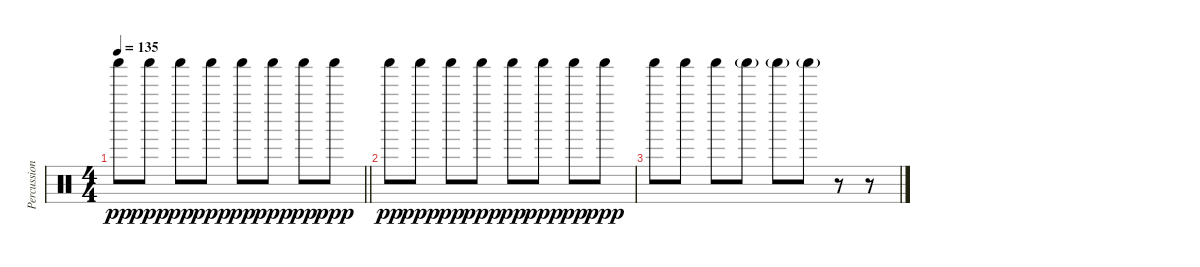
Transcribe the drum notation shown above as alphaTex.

\track ("Percussion" "Percussion") {instrument percussion}
\staff {score}
\articulation defaults
\ts (4 4)
\tempo 135
\clef neutral
\barLineRight lightlight
\ks c "Shaker (hit)".8{dy pp} "Shaker (hit)".8{dy ppp} "Shaker (hit)".8{dy pp} "Shaker (hit)".8{dy ppp} "Shaker (hit)".8{dy pp} "Shaker (hit)".8{dy ppp} "Shaker (hit)".8{dy pp} "Shaker (hit)".8{dy ppp}
|
"Shaker (hit)".8{dy pp} "Shaker (hit)".8{dy ppp} "Shaker (hit)".8{dy pp} "Shaker (hit)".8{dy ppp} "Shaker (hit)".8{dy pp} "Shaker (hit)".8{dy ppp} "Shaker (hit)".8{dy pp} "Shaker (hit)".8{dy ppp} |
"Shaker (hit)".8 "Shaker (hit)".8 "Shaker (hit)".8 "Shaker (hit)"{g}.8 "Shaker (hit)"{g}.8 "Shaker (hit)"{g}.8 r.8 r.8
